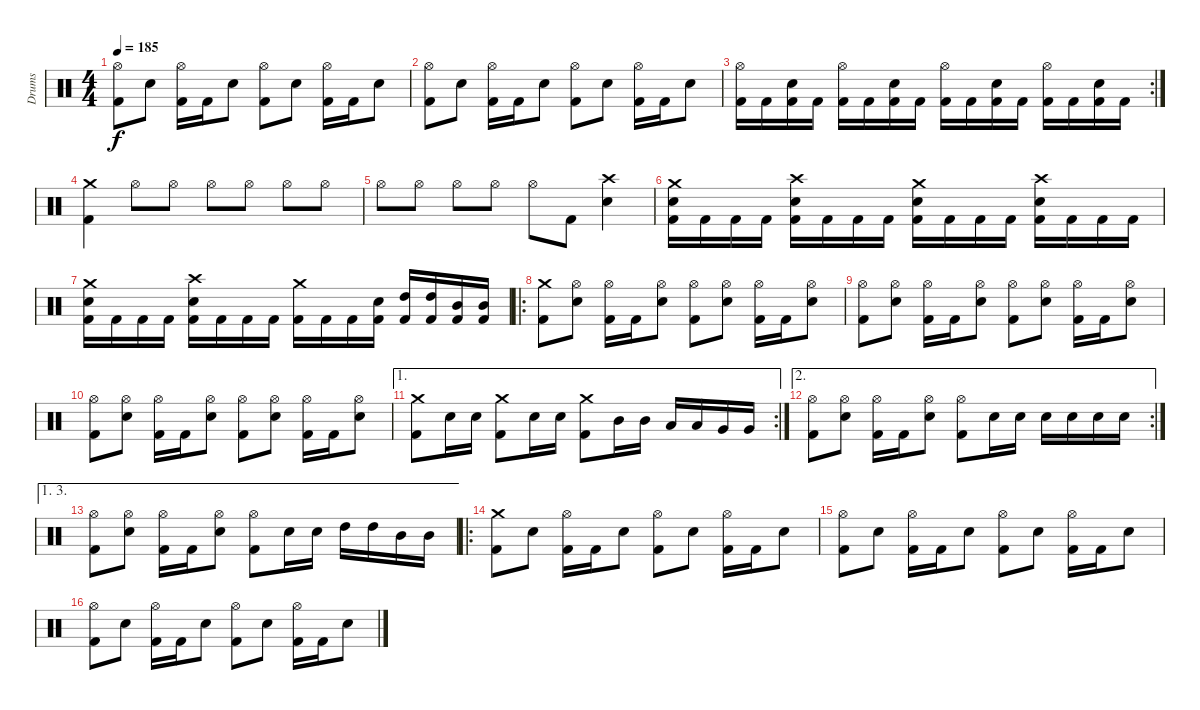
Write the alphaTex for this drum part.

\track ("Drums" "Drums") {instrument percussion}
\staff {score}
\articulation defaults
\ts (4 4)
\tempo 185
\clef neutral
\ks c
("Hi-Hat (open)" "Kick (hit) 2").8{dy f} "Electric Snare (hit)".8 ("Hi-Hat (open)" "Kick (hit) 2").16 "Kick (hit) 2".16 "Electric Snare (hit)".8 ("Hi-Hat (open)" "Kick (hit) 2").8 "Electric Snare (hit)".8 ("Hi-Hat (open)" "Kick (hit) 2").16 "Kick (hit) 2".16 "Electric Snare (hit)".8 |
("Hi-Hat (open)" "Kick (hit) 2").8 "Electric Snare (hit)".8 ("Hi-Hat (open)" "Kick (hit) 2").16 "Kick (hit) 2".16 "Electric Snare (hit)".8 ("Hi-Hat (open)" "Kick (hit) 2").8 "Electric Snare (hit)".8 ("Hi-Hat (open)" "Kick (hit) 2").16 "Kick (hit) 2".16 "Electric Snare (hit)".8 |
\rc 2
("Hi-Hat (open)" "Kick (hit) 2").16 "Kick (hit) 2".16 ("Electric Snare (hit)" "Kick (hit) 2").16 "Kick (hit) 2".16 ("Hi-Hat (open)" "Kick (hit) 2").16 "Kick (hit) 2".16 ("Electric Snare (hit)" "Kick (hit) 2").16 "Kick (hit) 2".16 ("Hi-Hat (open)" "Kick (hit) 2").16 "Kick (hit) 2".16 ("Electric Snare (hit)" "Kick (hit) 2").16 "Kick (hit) 2".16 ("Hi-Hat (open)" "Kick (hit) 2").16 "Kick (hit) 2".16 ("Electric Snare (hit)" "Kick (hit) 2").16 "Kick (hit) 2".16 |
("Crash medium (hit)" "Kick (hit) 2").4 "Hi-Hat (open)".8 "Hi-Hat (open)".8 "Hi-Hat (open)".8 "Hi-Hat (open)".8 "Hi-Hat (open)".8 "Hi-Hat (open)".8 |
"Hi-Hat (open)".8 "Hi-Hat (open)".8 "Hi-Hat (open)".8 "Hi-Hat (open)".8 "Hi-Hat (open)".8 "Kick (hit) 2".8 ("Crash high (hit)" "Electric Snare (hit)").4 |
("Crash medium (hit)" "Electric Snare (hit)" "Kick (hit) 2").16 "Kick (hit) 2".16 "Kick (hit) 2".16 "Kick (hit) 2".16 ("Crash high (hit)" "Electric Snare (hit)" "Kick (hit) 2").16 "Kick (hit) 2".16 "Kick (hit) 2".16 "Kick (hit) 2".16 ("Crash medium (hit)" "Electric Snare (hit)" "Kick (hit) 2").16 "Kick (hit) 2".16 "Kick (hit) 2".16 "Kick (hit) 2".16 ("Crash high (hit)" "Electric Snare (hit)" "Kick (hit) 2").16 "Kick (hit) 2".16 "Kick (hit) 2".16 "Kick (hit) 2".16 |
("Crash medium (hit)" "Electric Snare (hit)" "Kick (hit) 2").16 "Kick (hit) 2".16 "Kick (hit) 2".16 "Kick (hit) 2".16 ("Crash high (hit)" "Electric Snare (hit)" "Kick (hit) 2").16 "Kick (hit) 2".16 "Kick (hit) 2".16 "Kick (hit) 2".16 ("Crash medium (hit)" "Kick (hit) 2").16 "Kick (hit) 2".16 "Kick (hit) 2".16 ("Electric Snare (hit)" "Kick (hit) 2").16 ("High Tom (hit)" "Kick (hit) 2").16 ("High Tom (hit)" "Kick (hit) 2").16 ("Mid Tom (hit)" "Kick (hit) 2").16 ("Mid Tom (hit)" "Kick (hit) 2").16 |
\ro
("Crash medium (hit)" "Kick (hit) 2").8 ("Hi-Hat (open)" "Electric Snare (hit)").8 ("Hi-Hat (open)" "Kick (hit) 2").16 "Kick (hit) 2".16 ("Hi-Hat (open)" "Electric Snare (hit)").8 ("Hi-Hat (open)" "Kick (hit) 2").8 ("Hi-Hat (open)" "Electric Snare (hit)").8 ("Hi-Hat (open)" "Kick (hit) 2").16 "Kick (hit) 2".16 ("Hi-Hat (open)" "Electric Snare (hit)").8 |
("Hi-Hat (open)" "Kick (hit) 2").8 ("Hi-Hat (open)" "Electric Snare (hit)").8 ("Hi-Hat (open)" "Kick (hit) 2").16 "Kick (hit) 2".16 ("Hi-Hat (open)" "Electric Snare (hit)").8 ("Hi-Hat (open)" "Kick (hit) 2").8 ("Hi-Hat (open)" "Electric Snare (hit)").8 ("Hi-Hat (open)" "Kick (hit) 2").16 "Kick (hit) 2".16 ("Hi-Hat (open)" "Electric Snare (hit)").8 |
("Hi-Hat (open)" "Kick (hit) 2").8 ("Hi-Hat (open)" "Electric Snare (hit)").8 ("Hi-Hat (open)" "Kick (hit) 2").16 "Kick (hit) 2".16 ("Hi-Hat (open)" "Electric Snare (hit)").8 ("Hi-Hat (open)" "Kick (hit) 2").8 ("Hi-Hat (open)" "Electric Snare (hit)").8 ("Hi-Hat (open)" "Kick (hit) 2").16 "Kick (hit) 2".16 ("Hi-Hat (open)" "Electric Snare (hit)").8 |
\ae 1
\rc 2
("Crash medium (hit)" "Kick (hit) 2").8 "Electric Snare (hit)".16 "Electric Snare (hit)".16 ("Crash medium (hit)" "Kick (hit) 2").8 "Electric Snare (hit)".16 "Electric Snare (hit)".16 ("Crash medium (hit)" "Kick (hit) 2").8 "Mid Tom (hit)".16 "Mid Tom (hit)".16 "Low Tom (hit)".16 "Low Tom (hit)".16 "Very Low Tom (hit)".16 "Very Low Tom (hit)".16 |
\ae 2
\rc 2
("Hi-Hat (open)" "Kick (hit) 2").8 ("Hi-Hat (open)" "Electric Snare (hit)").8 ("Hi-Hat (open)" "Kick (hit) 2").16 "Kick (hit) 2".16 ("Hi-Hat (open)" "Electric Snare (hit)").8 ("Hi-Hat (open)" "Kick (hit) 2").8 "Electric Snare (hit)".16 "Electric Snare (hit)".16 "Electric Snare (hit)".16 "Electric Snare (hit)".16 "Electric Snare (hit)".16 "Electric Snare (hit)".16 |
\ae (1 3)
("Hi-Hat (open)" "Kick (hit) 2").8 ("Hi-Hat (open)" "Electric Snare (hit)").8 ("Hi-Hat (open)" "Kick (hit) 2").16 "Kick (hit) 2".16 ("Hi-Hat (open)" "Electric Snare (hit)").8 ("Hi-Hat (open)" "Kick (hit) 2").8 "Electric Snare (hit)".16 "Electric Snare (hit)".16 "High Tom (hit)".16 "High Tom (hit)".16 "Mid Tom (hit)".16 "Mid Tom (hit)".16 |
\ro
("Crash medium (hit)" "Kick (hit) 2").8 "Electric Snare (hit)".8 ("Hi-Hat (open)" "Kick (hit) 2").16 "Kick (hit) 2".16 "Electric Snare (hit)".8 ("Hi-Hat (open)" "Kick (hit) 2").8 "Electric Snare (hit)".8 ("Hi-Hat (open)" "Kick (hit) 2").16 "Kick (hit) 2".16 "Electric Snare (hit)".8 |
("Hi-Hat (open)" "Kick (hit) 2").8 "Electric Snare (hit)".8 ("Hi-Hat (open)" "Kick (hit) 2").16 "Kick (hit) 2".16 "Electric Snare (hit)".8 ("Hi-Hat (open)" "Kick (hit) 2").8 "Electric Snare (hit)".8 ("Hi-Hat (open)" "Kick (hit) 2").16 "Kick (hit) 2".16 "Electric Snare (hit)".8 |
("Hi-Hat (open)" "Kick (hit) 2").8 "Electric Snare (hit)".8 ("Hi-Hat (open)" "Kick (hit) 2").16 "Kick (hit) 2".16 "Electric Snare (hit)".8 ("Hi-Hat (open)" "Kick (hit) 2").8 "Electric Snare (hit)".8 ("Hi-Hat (open)" "Kick (hit) 2").16 "Kick (hit) 2".16 "Electric Snare (hit)".8
